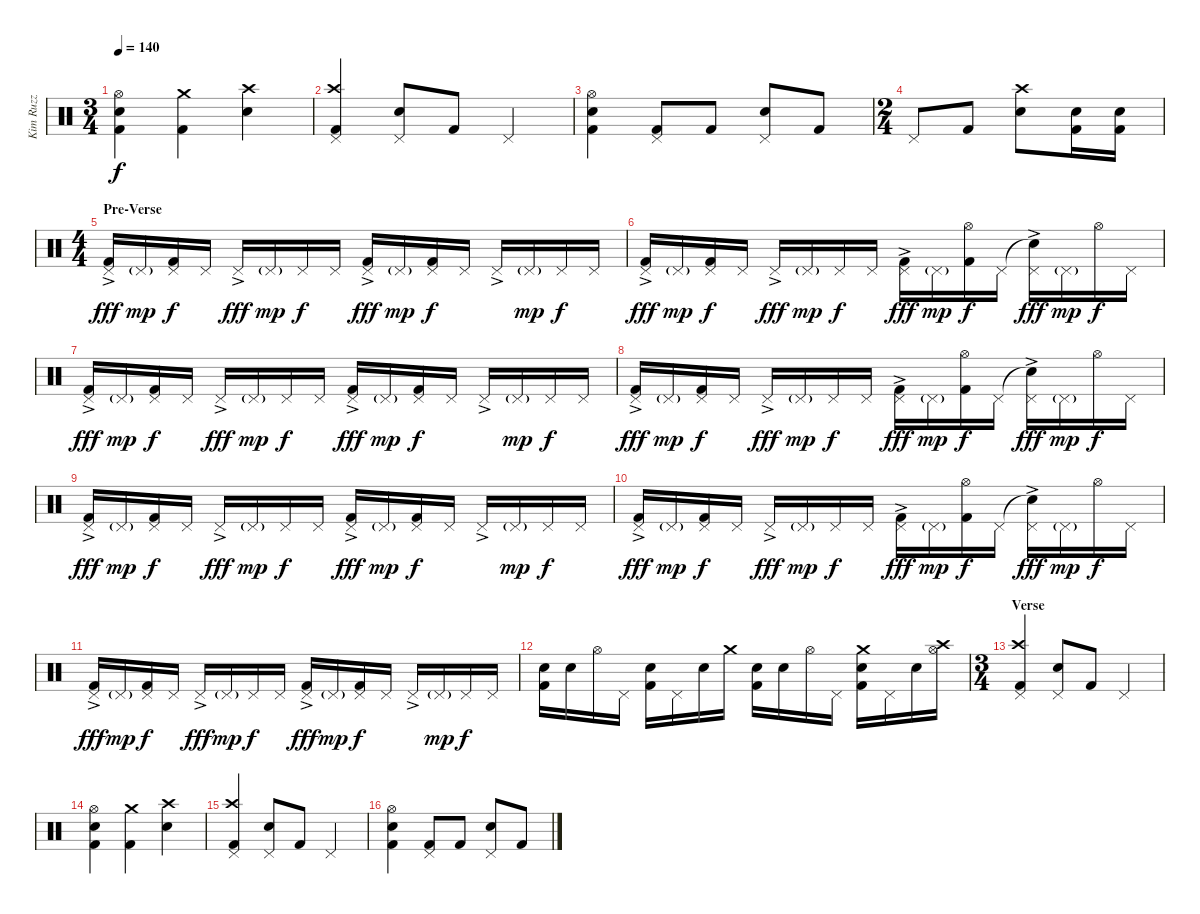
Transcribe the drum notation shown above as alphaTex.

\track ("Kim Ruzz" "Kim Ruzz") {instrument percussion}
\staff {score}
\articulation defaults
\ts (3 4)
\tempo 140
\clef neutral
\ks c
("Hi-Hat (open)" "Snare (hit) 2" "Kick (hit) 2").4{dy f} ("Crash medium (hit)" "Kick (hit) 2").4 ("Crash high (hit)" "Snare (hit) 2").4 |
("Crash high (hit)" "Pedal Hi-Hat (hit)" "Kick (hit) 2").4 ("Pedal Hi-Hat (hit)" "Snare (hit) 2").8 "Kick (hit) 2".8 "Pedal Hi-Hat (hit)".4 |
("Hi-Hat (open)" "Snare (hit) 2" "Kick (hit) 2").4 ("Pedal Hi-Hat (hit)" "Kick (hit) 2").8 "Kick (hit) 2".8 ("Pedal Hi-Hat (hit)" "Snare (hit) 2").8 "Kick (hit) 2".8 |
\ts (2 4)
"Pedal Hi-Hat (hit)".8 "Kick (hit) 2".8 ("Crash high (hit)" "Snare (hit) 2").8 ("Snare (hit) 2" "Kick (hit) 2").16 ("Snare (hit) 2" "Kick (hit) 2").16 |
\ts (4 4)
\section ("" "Pre-Verse")
("Pedal Hi-Hat (hit)"{ac} "Kick (hit) 2").16{dy fff} "Pedal Hi-Hat (hit)"{g}.16{dy mp} ("Pedal Hi-Hat (hit)" "Kick (hit) 2").16{dy f} "Pedal Hi-Hat (hit)".16 "Pedal Hi-Hat (hit)"{ac}.16{dy fff} "Pedal Hi-Hat (hit)"{g}.16{dy mp} "Pedal Hi-Hat (hit)".16{dy f} "Pedal Hi-Hat (hit)".16 ("Pedal Hi-Hat (hit)"{ac} "Kick (hit) 2").16{dy fff} "Pedal Hi-Hat (hit)"{g}.16{dy mp} ("Pedal Hi-Hat (hit)" "Kick (hit) 2").16{dy f} "Pedal Hi-Hat (hit)".16 "Pedal Hi-Hat (hit)"{ac}.16 "Pedal Hi-Hat (hit)"{g}.16{dy mp} "Pedal Hi-Hat (hit)".16{dy f} "Pedal Hi-Hat (hit)".16 |
("Pedal Hi-Hat (hit)"{ac} "Kick (hit) 2").16{dy fff} "Pedal Hi-Hat (hit)"{g}.16{dy mp} ("Pedal Hi-Hat (hit)" "Kick (hit) 2").16{dy f} "Pedal Hi-Hat (hit)".16 "Pedal Hi-Hat (hit)"{ac}.16{dy fff} "Pedal Hi-Hat (hit)"{g}.16{dy mp} "Pedal Hi-Hat (hit)".16{dy f} "Pedal Hi-Hat (hit)".16 ("Pedal Hi-Hat (hit)"{ac} "Kick (hit) 2").16{dy fff} "Pedal Hi-Hat (hit)"{g}.16{dy mp} ("Hi-Hat (open)" "Kick (hit) 2").16{dy f} "Pedal Hi-Hat (hit)".16 ("Snare (hit)"{t} "Pedal Hi-Hat (hit)"{ac}).16{dy fff} "Pedal Hi-Hat (hit)"{g}.16{dy mp} "Hi-Hat (open)".16{dy f} "Pedal Hi-Hat (hit)".16 |
("Pedal Hi-Hat (hit)"{ac} "Kick (hit) 2").16{dy fff} "Pedal Hi-Hat (hit)"{g}.16{dy mp} ("Pedal Hi-Hat (hit)" "Kick (hit) 2").16{dy f} "Pedal Hi-Hat (hit)".16 "Pedal Hi-Hat (hit)"{ac}.16{dy fff} "Pedal Hi-Hat (hit)"{g}.16{dy mp} "Pedal Hi-Hat (hit)".16{dy f} "Pedal Hi-Hat (hit)".16 ("Pedal Hi-Hat (hit)"{ac} "Kick (hit) 2").16{dy fff} "Pedal Hi-Hat (hit)"{g}.16{dy mp} ("Pedal Hi-Hat (hit)" "Kick (hit) 2").16{dy f} "Pedal Hi-Hat (hit)".16 "Pedal Hi-Hat (hit)"{ac}.16 "Pedal Hi-Hat (hit)"{g}.16{dy mp} "Pedal Hi-Hat (hit)".16{dy f} "Pedal Hi-Hat (hit)".16 |
("Pedal Hi-Hat (hit)"{ac} "Kick (hit) 2").16{dy fff} "Pedal Hi-Hat (hit)"{g}.16{dy mp} ("Pedal Hi-Hat (hit)" "Kick (hit) 2").16{dy f} "Pedal Hi-Hat (hit)".16 "Pedal Hi-Hat (hit)"{ac}.16{dy fff} "Pedal Hi-Hat (hit)"{g}.16{dy mp} "Pedal Hi-Hat (hit)".16{dy f} "Pedal Hi-Hat (hit)".16 ("Pedal Hi-Hat (hit)"{ac} "Kick (hit) 2").16{dy fff} "Pedal Hi-Hat (hit)"{g}.16{dy mp} ("Hi-Hat (open)" "Kick (hit) 2").16{dy f} "Pedal Hi-Hat (hit)".16 ("Snare (hit)"{t} "Pedal Hi-Hat (hit)"{ac}).16{dy fff} "Pedal Hi-Hat (hit)"{g}.16{dy mp} "Hi-Hat (open)".16{dy f} "Pedal Hi-Hat (hit)".16 |
("Pedal Hi-Hat (hit)"{ac} "Kick (hit) 2").16{dy fff} "Pedal Hi-Hat (hit)"{g}.16{dy mp} ("Pedal Hi-Hat (hit)" "Kick (hit) 2").16{dy f} "Pedal Hi-Hat (hit)".16 "Pedal Hi-Hat (hit)"{ac}.16{dy fff} "Pedal Hi-Hat (hit)"{g}.16{dy mp} "Pedal Hi-Hat (hit)".16{dy f} "Pedal Hi-Hat (hit)".16 ("Pedal Hi-Hat (hit)"{ac} "Kick (hit) 2").16{dy fff} "Pedal Hi-Hat (hit)"{g}.16{dy mp} ("Pedal Hi-Hat (hit)" "Kick (hit) 2").16{dy f} "Pedal Hi-Hat (hit)".16 "Pedal Hi-Hat (hit)"{ac}.16 "Pedal Hi-Hat (hit)"{g}.16{dy mp} "Pedal Hi-Hat (hit)".16{dy f} "Pedal Hi-Hat (hit)".16 |
("Pedal Hi-Hat (hit)"{ac} "Kick (hit) 2").16{dy fff} "Pedal Hi-Hat (hit)"{g}.16{dy mp} ("Pedal Hi-Hat (hit)" "Kick (hit) 2").16{dy f} "Pedal Hi-Hat (hit)".16 "Pedal Hi-Hat (hit)"{ac}.16{dy fff} "Pedal Hi-Hat (hit)"{g}.16{dy mp} "Pedal Hi-Hat (hit)".16{dy f} "Pedal Hi-Hat (hit)".16 ("Pedal Hi-Hat (hit)"{ac} "Kick (hit) 2").16{dy fff} "Pedal Hi-Hat (hit)"{g}.16{dy mp} ("Hi-Hat (open)" "Kick (hit) 2").16{dy f} "Pedal Hi-Hat (hit)".16 ("Snare (hit)"{t} "Pedal Hi-Hat (hit)"{ac}).16{dy fff} "Pedal Hi-Hat (hit)"{g}.16{dy mp} "Hi-Hat (open)".16{dy f} "Pedal Hi-Hat (hit)".16 |
("Pedal Hi-Hat (hit)"{ac} "Kick (hit) 2").16{dy fff} "Pedal Hi-Hat (hit)"{g}.16{dy mp} ("Pedal Hi-Hat (hit)" "Kick (hit) 2").16{dy f} "Pedal Hi-Hat (hit)".16 "Pedal Hi-Hat (hit)"{ac}.16{dy fff} "Pedal Hi-Hat (hit)"{g}.16{dy mp} "Pedal Hi-Hat (hit)".16{dy f} "Pedal Hi-Hat (hit)".16 ("Pedal Hi-Hat (hit)"{ac} "Kick (hit) 2").16{dy fff} "Pedal Hi-Hat (hit)"{g}.16{dy mp} ("Pedal Hi-Hat (hit)" "Kick (hit) 2").16{dy f} "Pedal Hi-Hat (hit)".16 "Pedal Hi-Hat (hit)"{ac}.16 "Pedal Hi-Hat (hit)"{g}.16{dy mp} "Pedal Hi-Hat (hit)".16{dy f} "Pedal Hi-Hat (hit)".16 |
("Snare (hit) 2" "Kick (hit) 2").16 "Snare (hit) 2".16 "Hi-Hat (open)".16 "Pedal Hi-Hat (hit)".16 ("Snare (hit) 2" "Kick (hit) 2").16 "Pedal Hi-Hat (hit)".16 "Snare (hit) 2".16 "Crash medium (hit)".16 ("Snare (hit) 2" "Kick (hit) 2").16 "Snare (hit) 2".16 "Hi-Hat (open)".16 "Pedal Hi-Hat (hit)".16 ("Crash medium (hit)" "Snare (hit) 2" "Kick (hit) 2").16 "Pedal Hi-Hat (hit)".16 "Snare (hit) 2".16 ("Crash high (hit)" "Hi-Hat (open)").16 |
\ts (3 4)
\section ("" "Verse")
("Crash high (hit)" "Pedal Hi-Hat (hit)" "Kick (hit) 2").4 ("Pedal Hi-Hat (hit)" "Snare (hit) 2").8 "Kick (hit) 2".8 "Pedal Hi-Hat (hit)".4 |
("Hi-Hat (open)" "Snare (hit) 2" "Kick (hit) 2").4 ("Crash medium (hit)" "Kick (hit) 2").4 ("Crash high (hit)" "Snare (hit) 2").4 |
("Crash high (hit)" "Pedal Hi-Hat (hit)" "Kick (hit) 2").4 ("Pedal Hi-Hat (hit)" "Snare (hit) 2").8 "Kick (hit) 2".8 "Pedal Hi-Hat (hit)".4 |
("Hi-Hat (open)" "Snare (hit) 2" "Kick (hit) 2").4 ("Pedal Hi-Hat (hit)" "Kick (hit) 2").8 "Kick (hit) 2".8 ("Pedal Hi-Hat (hit)" "Snare (hit) 2").8 "Kick (hit) 2".8
